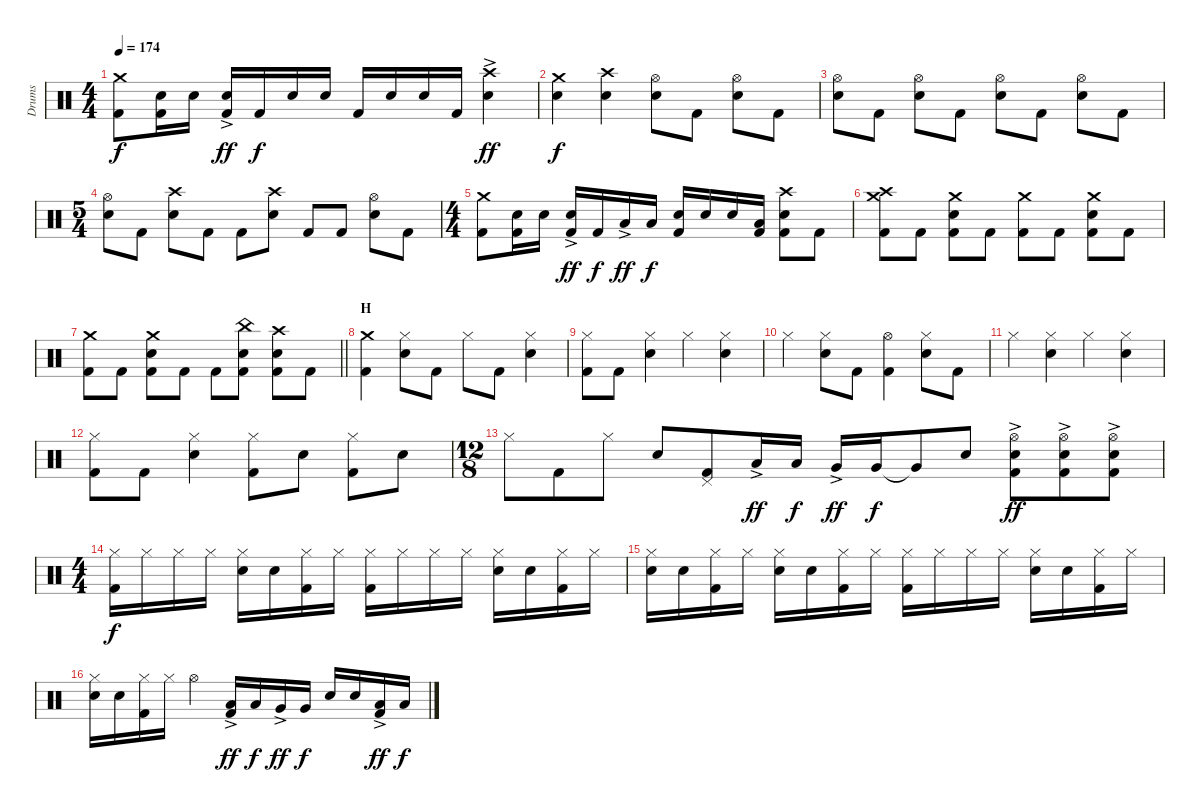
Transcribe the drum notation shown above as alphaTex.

\track ("Drums" "Drums") {instrument percussion}
\staff {score}
\articulation defaults
\ts (4 4)
\tempo 174
\clef neutral
\ks c
("Crash medium (hit)" "Kick (hit) 2").8{dy f} ("Electric Snare (hit)" "Kick (hit) 2").16 "Electric Snare (hit)".16 ("Electric Snare (hit)"{ac} "Kick (hit) 2").16{dy ff} "Kick (hit) 2".16{dy f} "Electric Snare (hit)".16 "Electric Snare (hit)".16 "Kick (hit) 2".16 "Electric Snare (hit)".16 "Electric Snare (hit)".16 "Kick (hit) 2".16 ("Crash high (hit)" "Electric Snare (hit)"{ac}).4{dy ff} |
("Crash medium (hit)" "Electric Snare (hit)").4{dy f} ("Crash high (hit)" "Electric Snare (hit)").4 ("Hi-Hat (open)" "Electric Snare (hit)").8 "Kick (hit) 2".8 ("Hi-Hat (open)" "Electric Snare (hit)").8 "Kick (hit) 2".8 |
("Hi-Hat (open)" "Electric Snare (hit)").8 "Kick (hit) 2".8 ("Hi-Hat (open)" "Electric Snare (hit)").8 "Kick (hit) 2".8 ("Hi-Hat (open)" "Electric Snare (hit)").8 "Kick (hit) 2".8 ("Hi-Hat (open)" "Electric Snare (hit)").8 "Kick (hit) 2".8 |
\ts (5 4)
("Hi-Hat (open)" "Electric Snare (hit)").8 "Kick (hit) 2".8 ("Crash high (hit)" "Electric Snare (hit)").8 "Kick (hit) 2".8 "Kick (hit) 2".8 ("Crash high (hit)" "Electric Snare (hit)").8 "Kick (hit) 2".8 "Kick (hit) 2".8 ("Hi-Hat (open)" "Electric Snare (hit)").8 "Kick (hit) 2".8 |
\ts (4 4)
("Crash medium (hit)" "Kick (hit) 2").8 ("Electric Snare (hit)" "Kick (hit) 2").16 "Electric Snare (hit)".16 ("Electric Snare (hit)"{ac} "Kick (hit) 2").16{dy ff} "Kick (hit) 2".16{dy f} "Low Tom (hit)"{ac}.16{dy ff} "Low Tom (hit)".16{dy f} ("Electric Snare (hit)" "Kick (hit) 2").16 "Electric Snare (hit)".16 "Electric Snare (hit)".16 ("Low Tom (hit)" "Kick (hit) 2").16 ("Crash high (hit)" "Electric Snare (hit)" "Kick (hit) 2").8 "Kick (hit) 2".8 |
("Crash medium (hit)" "Crash high (hit)" "Kick (hit) 2").8 "Kick (hit) 2".8 ("Crash medium (hit)" "Electric Snare (hit)" "Kick (hit) 2").8 "Kick (hit) 2".8 ("Crash medium (hit)" "Kick (hit) 2").8 "Kick (hit) 2".8 ("Crash medium (hit)" "Electric Snare (hit)" "Kick (hit) 2").8 "Kick (hit) 2".8 |
\barLineRight lightlight
("Crash medium (hit)" "Kick (hit) 2").8 "Kick (hit) 2".8 ("Crash medium (hit)" "Electric Snare (hit)" "Kick (hit) 2").8 "Kick (hit) 2".8 "Kick (hit) 2".8 ("China (hit)" "Electric Snare (hit)" "Kick (hit) 2").8 ("Crash high (hit)" "Electric Snare (hit)" "Kick (hit) 2").8 "Kick (hit) 2".8 |
\section ("" "H")
("Crash medium (hit)" "Kick (hit) 2").4{volume 12} ("Hi-Hat (closed)" "Electric Snare (hit)").8 "Kick (hit) 2".8 "Hi-Hat (closed)".8 "Kick (hit) 2".8 ("Hi-Hat (closed)" "Electric Snare (hit)").4 |
("Hi-Hat (closed)" "Kick (hit) 2").8 "Kick (hit) 2".8 ("Hi-Hat (closed)" "Electric Snare (hit)").4 "Hi-Hat (closed)".4 ("Hi-Hat (closed)" "Electric Snare (hit)").4 |
"Hi-Hat (closed)".4 ("Hi-Hat (closed)" "Electric Snare (hit)").8 "Kick (hit) 2".8 ("Hi-Hat (open)" "Kick (hit) 2").4 ("Hi-Hat (closed)" "Electric Snare (hit)").8 "Kick (hit) 2".8 |
"Hi-Hat (closed)".4 ("Hi-Hat (closed)" "Electric Snare (hit)").4 "Hi-Hat (closed)".4 ("Hi-Hat (closed)" "Electric Snare (hit)").4 |
("Hi-Hat (closed)" "Kick (hit) 2").8 "Kick (hit) 2".8 ("Hi-Hat (closed)" "Electric Snare (hit)").4 ("Hi-Hat (closed)" "Kick (hit) 2").8 "Electric Snare (hit)".8 ("Hi-Hat (closed)" "Kick (hit) 2").8 "Electric Snare (hit)".8 |
\ts (12 8)
"Hi-Hat (closed)".8 "Kick (hit) 2".8 "Hi-Hat (closed)".8 "Electric Snare (hit)".8 ("Pedal Hi-Hat (hit)" "Kick (hit) 2").8 "Low Tom (hit)"{ac}.16{dy ff} "Low Tom (hit)".16{dy f} "Very Low Tom (hit)"{ac}.16{dy ff} "Very Low Tom (hit)".16{dy f} "Very Low Tom (hit)"{t}.8 "Electric Snare (hit)".8 ("Hi-Hat (open)"{ac} "Electric Snare (hit)"{ac} "Kick (hit) 2"{ac}).8{dy ff} ("Hi-Hat (open)"{ac} "Electric Snare (hit)"{ac} "Kick (hit) 2"{ac}).8 ("Hi-Hat (open)"{ac} "Electric Snare (hit)"{ac} "Kick (hit) 2"{ac}).8 |
\ts (4 4)
("Hi-Hat (closed)" "Kick (hit) 2").16{dy f} "Hi-Hat (closed)".16 "Hi-Hat (closed)".16 "Hi-Hat (closed)".16 ("Hi-Hat (closed)" "Electric Snare (hit)").16 "Electric Snare (hit)".16 ("Hi-Hat (closed)" "Kick (hit) 2").16 "Hi-Hat (closed)".16 ("Hi-Hat (closed)" "Kick (hit) 2").16 "Hi-Hat (closed)".16 "Hi-Hat (closed)".16 "Hi-Hat (closed)".16 ("Hi-Hat (closed)" "Electric Snare (hit)").16 "Electric Snare (hit)".16 ("Hi-Hat (closed)" "Kick (hit) 2").16 "Hi-Hat (closed)".16 |
("Hi-Hat (closed)" "Electric Snare (hit)").16 "Electric Snare (hit)".16 ("Hi-Hat (closed)" "Kick (hit) 2").16 "Hi-Hat (closed)".16 ("Hi-Hat (closed)" "Electric Snare (hit)").16 "Electric Snare (hit)".16 ("Hi-Hat (closed)" "Kick (hit) 2").16 "Hi-Hat (closed)".16 ("Hi-Hat (closed)" "Kick (hit) 2").16 "Hi-Hat (closed)".16 "Hi-Hat (closed)".16 "Hi-Hat (closed)".16 ("Hi-Hat (closed)" "Electric Snare (hit)").16 "Electric Snare (hit)".16 ("Hi-Hat (closed)" "Kick (hit) 2").16 "Hi-Hat (closed)".16 |
("Hi-Hat (closed)" "Electric Snare (hit)").16 "Electric Snare (hit)".16 ("Hi-Hat (closed)" "Kick (hit) 2").16 "Hi-Hat (closed)".16 "Hi-Hat (open)".4 ("Low Tom (hit)"{ac} "Kick (hit) 2").16{dy ff} "Low Tom (hit)".16{dy f} "Very Low Tom (hit)"{ac}.16{dy ff} "Very Low Tom (hit)".16{dy f} "Electric Snare (hit)".16 "Electric Snare (hit)".16 ("Low Tom (hit)"{ac} "Kick (hit) 2").16{dy ff} "Low Tom (hit)".16{dy f}
